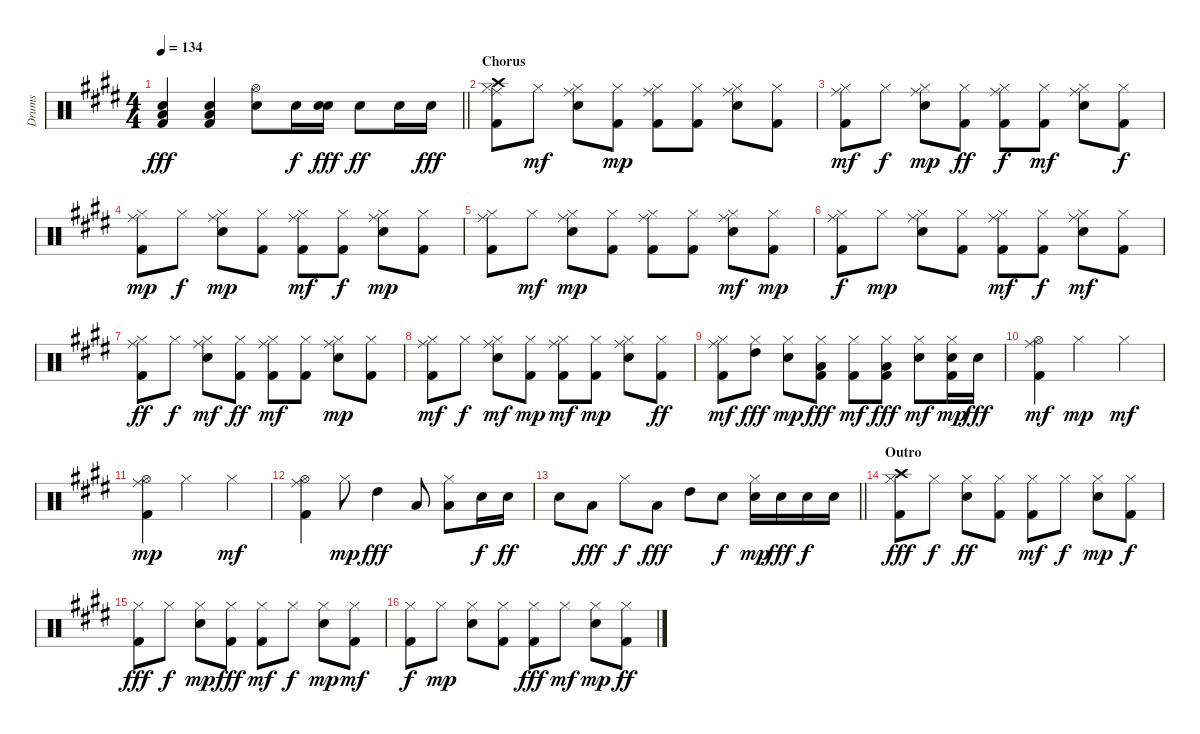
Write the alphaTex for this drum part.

\track ("Drums" "Drums") {instrument percussion}
\staff {score}
\articulation defaults
\ts (4 4)
\tempo 134
\clef neutral
\barLineRight lightlight
\ks e
("Kick (hit) 2" "Snare (hit) 2" "Low Tom (hit)").4{dy fff} ("Kick (hit) 2" "Snare (hit) 2" "Low Floor Tom (hit)").4 ("Snare (hit) 2" "Hi-Hat (open)").8 "Snare (hit) 2".16{dy f} ("Snare (hit) 2" "Snare (hit) 2").16{dy fff} "Snare (hit) 2".8{dy ff} "Snare (hit) 2".16 "Snare (hit) 2".16{dy fff} |
\section ("" "Chorus")
("Kick (hit) 2" "Hi-Hat (closed)" "Crash high (hit)" "Ride (middle)").8 "Hi-Hat (closed)".8{dy mf} ("Snare (hit) 2" "Hi-Hat (closed)" "Ride (middle)").8 ("Kick (hit) 2" "Hi-Hat (closed)").8{dy mp} ("Kick (hit) 2" "Hi-Hat (closed)" "Ride (middle)").8 ("Kick (hit) 2" "Hi-Hat (closed)").8 ("Snare (hit) 2" "Hi-Hat (closed)" "Ride (middle)").8 ("Kick (hit) 2" "Hi-Hat (closed)").8 |
("Kick (hit) 2" "Hi-Hat (closed)" "Ride (middle)").8{dy mf} "Hi-Hat (closed)".8{dy f} ("Snare (hit) 2" "Hi-Hat (closed)" "Ride (middle)").8{dy mp} ("Kick (hit) 2" "Hi-Hat (closed)").8{dy ff} ("Kick (hit) 2" "Hi-Hat (closed)" "Ride (middle)").8{dy f} ("Kick (hit) 2" "Hi-Hat (closed)").8{dy mf} ("Snare (hit) 2" "Hi-Hat (closed)" "Ride (middle)").8 ("Kick (hit) 2" "Hi-Hat (closed)").8{dy f} |
("Kick (hit) 2" "Hi-Hat (closed)" "Ride (middle)").8{dy mp} "Hi-Hat (closed)".8{dy f} ("Snare (hit) 2" "Hi-Hat (closed)" "Ride (middle)").8{dy mp} ("Kick (hit) 2" "Hi-Hat (closed)").8 ("Kick (hit) 2" "Hi-Hat (closed)" "Ride (middle)").8{dy mf} ("Kick (hit) 2" "Hi-Hat (closed)").8{dy f} ("Snare (hit) 2" "Hi-Hat (closed)" "Ride (middle)").8{dy mp} ("Kick (hit) 2" "Hi-Hat (closed)").8 |
("Kick (hit) 2" "Hi-Hat (closed)" "Ride (middle)").8 "Hi-Hat (closed)".8{dy mf} ("Snare (hit) 2" "Hi-Hat (closed)" "Ride (middle)").8{dy mp} ("Kick (hit) 2" "Hi-Hat (closed)").8 ("Kick (hit) 2" "Hi-Hat (closed)" "Ride (middle)").8 ("Kick (hit) 2" "Hi-Hat (closed)").8 ("Snare (hit) 2" "Hi-Hat (closed)" "Ride (middle)").8{dy mf} ("Kick (hit) 2" "Hi-Hat (closed)").8{dy mp} |
("Kick (hit) 2" "Hi-Hat (closed)" "Ride (middle)").8{dy f} "Hi-Hat (closed)".8{dy mp} ("Snare (hit) 2" "Hi-Hat (closed)" "Ride (middle)").8 ("Kick (hit) 2" "Hi-Hat (closed)").8 ("Kick (hit) 2" "Hi-Hat (closed)" "Ride (middle)").8{dy mf} ("Kick (hit) 2" "Hi-Hat (closed)").8{dy f} ("Snare (hit) 2" "Hi-Hat (closed)" "Ride (middle)").8{dy mf} ("Kick (hit) 2" "Hi-Hat (closed)").8 |
("Kick (hit) 2" "Hi-Hat (closed)" "Ride (middle)").8{dy ff} "Hi-Hat (closed)".8{dy f} ("Snare (hit) 2" "Hi-Hat (closed)" "Ride (middle)").8{dy mf} ("Kick (hit) 2" "Hi-Hat (closed)").8{dy ff} ("Kick (hit) 2" "Hi-Hat (closed)" "Ride (middle)").8{dy mf} ("Kick (hit) 2" "Hi-Hat (closed)").8 ("Snare (hit) 2" "Hi-Hat (closed)" "Ride (middle)").8{dy mp} ("Kick (hit) 2" "Hi-Hat (closed)").8 |
("Kick (hit) 2" "Hi-Hat (closed)" "Ride (middle)").8{dy mf} "Hi-Hat (closed)".8{dy f} ("Snare (hit) 2" "Hi-Hat (closed)" "Ride (middle)").8{dy mf} ("Kick (hit) 2" "Hi-Hat (closed)").8{dy mp} ("Kick (hit) 2" "Hi-Hat (closed)" "Ride (middle)").8{dy mf} ("Kick (hit) 2" "Hi-Hat (closed)").8{dy mp} ("Snare (hit) 2" "Hi-Hat (closed)" "Ride (middle)").8 ("Kick (hit) 2" "Hi-Hat (closed)").8{dy ff} |
("Kick (hit) 2" "Hi-Hat (closed)" "Ride (middle)").8{dy mf} ("Hi-Hat (closed)" "High Tom (hit)").8{dy fff} ("Snare (hit) 2" "Hi-Hat (closed)").8{dy mp} ("Kick (hit) 2" "Hi-Hat (closed)" "Low Tom (hit)").8{dy fff} ("Kick (hit) 2" "Hi-Hat (closed)").8{dy mf} ("Kick (hit) 2" "Low Floor Tom (hit)" "Hi-Hat (closed)").8{dy fff} ("Snare (hit) 2" "Hi-Hat (closed)").8{dy mf} ("Kick (hit) 2" "Snare (hit) 2" "Hi-Hat (closed)").16{dy mp} "Snare (hit) 2".16{dy fff} |
("Kick (hit) 2" "Hi-Hat (open)" "Ride (middle)").4{dy mf} "Hi-Hat (closed)".2{dy mp} "Hi-Hat (closed)".4{dy mf} |
("Kick (hit) 2" "Hi-Hat (open)" "Ride (middle)").4{dy mp} "Hi-Hat (closed)".2 "Hi-Hat (closed)".4{dy mf} |
("Kick (hit) 2" "Hi-Hat (open)" "Ride (middle)").4 "Hi-Hat (closed)".8{dy mp} "High Tom (hit)".4{dy fff} "Low Tom (hit)".8 ("Low Floor Tom (hit)" "Hi-Hat (closed)").8 "Snare (hit) 2".16{dy f} "Snare (hit) 2".16{dy ff} |
\barLineRight lightlight "Snare (hit) 2".8 "Low Floor Tom (hit)".8{dy fff} "Hi-Hat (closed)".8{dy f} "Low Tom (hit)".8{dy fff} "High Tom (hit)".8 "Snare (hit) 2".8{dy f}
("Snare (hit) 2" "Hi-Hat (closed)").16{dy mp} "Snare (hit) 2".16{dy fff} "Snare (hit) 2".16{dy f} "Snare (hit) 2".16 |
\section ("" "Outro")
("Kick (hit) 2" "Hi-Hat (closed)" "Crash high (hit)").8{dy fff} "Hi-Hat (closed)".8{dy f} ("Snare (hit) 2" "Hi-Hat (closed)").8{dy ff} ("Kick (hit) 2" "Hi-Hat (closed)").8 ("Kick (hit) 2" "Hi-Hat (closed)").8{dy mf} "Hi-Hat (closed)".8{dy f} ("Snare (hit) 2" "Hi-Hat (closed)").8{dy mp} ("Kick (hit) 2" "Hi-Hat (closed)").8{dy f} |
("Kick (hit) 2" "Hi-Hat (closed)").8{dy fff} "Hi-Hat (closed)".8{dy f} ("Snare (hit) 2" "Hi-Hat (closed)").8{dy mp} ("Kick (hit) 2" "Hi-Hat (closed)").8{dy fff} ("Kick (hit) 2" "Hi-Hat (closed)").8{dy mf} "Hi-Hat (closed)".8{dy f} ("Snare (hit) 2" "Hi-Hat (closed)").8{dy mp} ("Kick (hit) 2" "Hi-Hat (closed)").8{dy mf} |
("Kick (hit) 2" "Hi-Hat (closed)").8{dy f} "Hi-Hat (closed)".8{dy mp} ("Snare (hit) 2" "Hi-Hat (closed)").8 ("Kick (hit) 2" "Hi-Hat (closed)").8 ("Kick (hit) 2" "Hi-Hat (closed)").8{dy fff} "Hi-Hat (closed)".8{dy mf} ("Snare (hit) 2" "Hi-Hat (closed)").8{dy mp} ("Kick (hit) 2" "Hi-Hat (closed)").8{dy ff}
